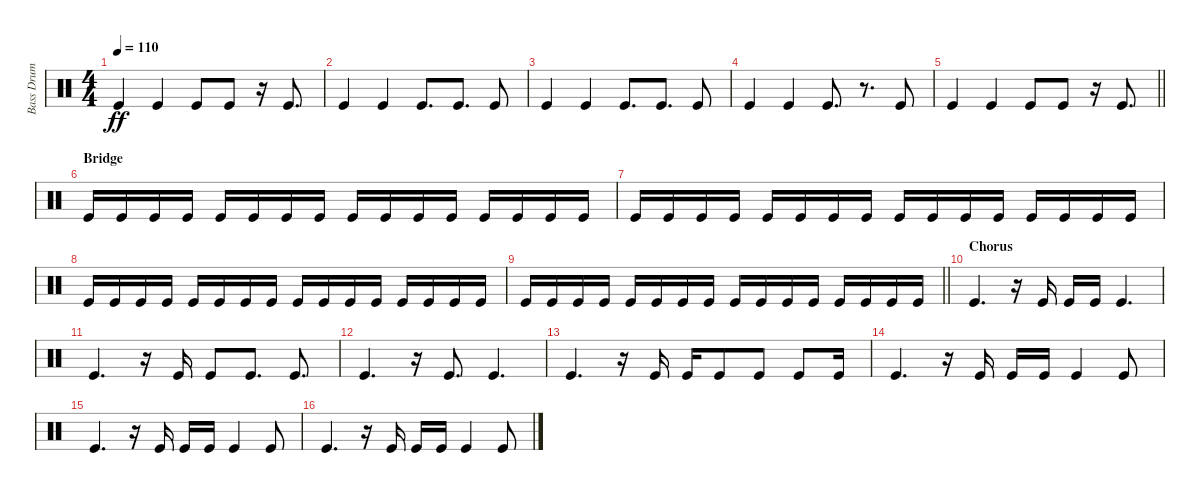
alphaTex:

\track ("Bass Drum" "Bass Drum") {instrument percussion}
\staff {score}
\articulation defaults
\ts (4 4)
\tempo 110
\clef neutral
\ks c "Kick (hit)".4{dy ff} "Kick (hit)".4 "Kick (hit)".8 "Kick (hit)".8
r.16 "Kick (hit)".8{d} |
"Kick (hit)".4 "Kick (hit)".4 "Kick (hit)".8{d} "Kick (hit)".8{d} "Kick (hit)".8 |
"Kick (hit)".4 "Kick (hit)".4 "Kick (hit)".8{d} "Kick (hit)".8{d} "Kick (hit)".8 |
"Kick (hit)".4 "Kick (hit)".4 "Kick (hit)".8{d} r.8{d} "Kick (hit)".8 |
\barLineRight lightlight "Kick (hit)".4 "Kick (hit)".4 "Kick (hit)".8 "Kick (hit)".8
r.16 "Kick (hit)".8{d} |
\section ("" "Bridge")
"Kick (hit)".16 "Kick (hit)".16 "Kick (hit)".16 "Kick (hit)".16 "Kick (hit)".16 "Kick (hit)".16 "Kick (hit)".16 "Kick (hit)".16 "Kick (hit)".16 "Kick (hit)".16 "Kick (hit)".16 "Kick (hit)".16 "Kick (hit)".16 "Kick (hit)".16 "Kick (hit)".16 "Kick (hit)".16 |
"Kick (hit)".16 "Kick (hit)".16 "Kick (hit)".16 "Kick (hit)".16 "Kick (hit)".16 "Kick (hit)".16 "Kick (hit)".16 "Kick (hit)".16 "Kick (hit)".16 "Kick (hit)".16 "Kick (hit)".16 "Kick (hit)".16 "Kick (hit)".16 "Kick (hit)".16 "Kick (hit)".16 "Kick (hit)".16 |
"Kick (hit)".16 "Kick (hit)".16 "Kick (hit)".16 "Kick (hit)".16 "Kick (hit)".16 "Kick (hit)".16 "Kick (hit)".16 "Kick (hit)".16 "Kick (hit)".16 "Kick (hit)".16 "Kick (hit)".16 "Kick (hit)".16 "Kick (hit)".16 "Kick (hit)".16 "Kick (hit)".16 "Kick (hit)".16 |
\barLineRight lightlight "Kick (hit)".16 "Kick (hit)".16 "Kick (hit)".16 "Kick (hit)".16 "Kick (hit)".16 "Kick (hit)".16 "Kick (hit)".16 "Kick (hit)".16 "Kick (hit)".16 "Kick (hit)".16 "Kick (hit)".16 "Kick (hit)".16 "Kick (hit)".16 "Kick (hit)".16 "Kick (hit)".16 "Kick (hit)".16
|
\section ("" "Chorus")
"Kick (hit)".4{d} r.16 "Kick (hit)".16 "Kick (hit)".16 "Kick (hit)".16 "Kick (hit)".4{d} |
"Kick (hit)".4{d} r.16 "Kick (hit)".16 "Kick (hit)".8 "Kick (hit)".8{d} "Kick (hit)".8{d} |
"Kick (hit)".4{d} r.16 "Kick (hit)".8{d} "Kick (hit)".4{d} |
"Kick (hit)".4{d} r.16 "Kick (hit)".16 "Kick (hit)".16 "Kick (hit)".8 "Kick (hit)".8 "Kick (hit)".8 "Kick (hit)".16 |
"Kick (hit)".4{d} r.16 "Kick (hit)".16 "Kick (hit)".16 "Kick (hit)".16 "Kick (hit)".4 "Kick (hit)".8 |
"Kick (hit)".4{d} r.16 "Kick (hit)".16 "Kick (hit)".16 "Kick (hit)".16 "Kick (hit)".4 "Kick (hit)".8 |
"Kick (hit)".4{d} r.16 "Kick (hit)".16 "Kick (hit)".16 "Kick (hit)".16 "Kick (hit)".4 "Kick (hit)".8
